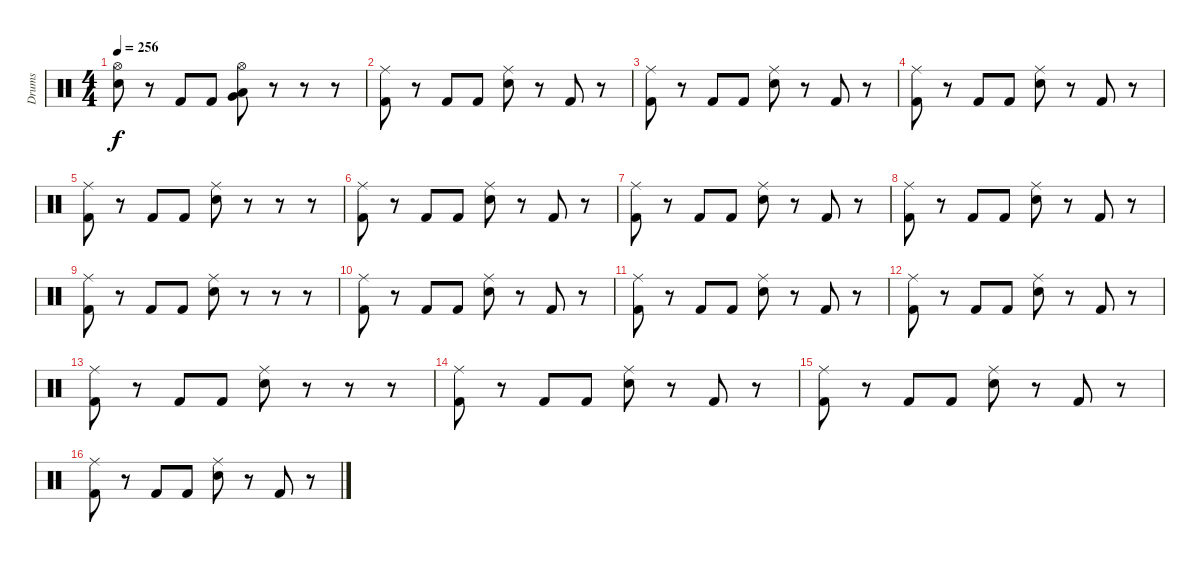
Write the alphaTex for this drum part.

\track ("Drums" "Drums") {instrument percussion}
\staff {score}
\articulation defaults
\ts (4 4)
\tempo 256
\clef neutral
\ks c
("Hi-Hat (open)" "Electric Snare (hit)").8{dy f} r.8 "Kick (hit) 2".8 "Kick (hit) 2".8 ("Hi-Hat (open)" "Low Tom (hit)" "Very Low Tom (hit)").8 r.8 r.8 r.8 |
("Ride (middle)" "Kick (hit) 2").8 r.8 "Kick (hit) 2".8 "Kick (hit) 2".8 ("Ride (middle)" "Electric Snare (hit)").8 r.8 "Kick (hit) 2".8 r.8 |
("Ride (middle)" "Kick (hit) 2").8 r.8 "Kick (hit) 2".8 "Kick (hit) 2".8 ("Ride (middle)" "Electric Snare (hit)").8 r.8 "Kick (hit) 2".8 r.8 |
("Ride (middle)" "Kick (hit) 2").8 r.8 "Kick (hit) 2".8 "Kick (hit) 2".8 ("Ride (middle)" "Electric Snare (hit)").8 r.8 "Kick (hit) 2".8 r.8 |
("Ride (middle)" "Kick (hit) 2").8 r.8 "Kick (hit) 2".8 "Kick (hit) 2".8 ("Ride (middle)" "Electric Snare (hit)").8 r.8 r.8 r.8 |
("Ride (middle)" "Kick (hit) 2").8 r.8 "Kick (hit) 2".8 "Kick (hit) 2".8 ("Ride (middle)" "Electric Snare (hit)").8 r.8 "Kick (hit) 2".8 r.8 |
("Ride (middle)" "Kick (hit) 2").8 r.8 "Kick (hit) 2".8 "Kick (hit) 2".8 ("Ride (middle)" "Electric Snare (hit)").8 r.8 "Kick (hit) 2".8 r.8 |
("Ride (middle)" "Kick (hit) 2").8 r.8 "Kick (hit) 2".8 "Kick (hit) 2".8 ("Ride (middle)" "Electric Snare (hit)").8 r.8 "Kick (hit) 2".8 r.8 |
("Ride (middle)" "Kick (hit) 2").8 r.8 "Kick (hit) 2".8 "Kick (hit) 2".8 ("Ride (middle)" "Electric Snare (hit)").8 r.8 r.8 r.8 |
("Ride (middle)" "Kick (hit) 2").8 r.8 "Kick (hit) 2".8 "Kick (hit) 2".8 ("Ride (middle)" "Electric Snare (hit)").8 r.8 "Kick (hit) 2".8 r.8 |
("Ride (middle)" "Kick (hit) 2").8 r.8 "Kick (hit) 2".8 "Kick (hit) 2".8 ("Ride (middle)" "Electric Snare (hit)").8 r.8 "Kick (hit) 2".8 r.8 |
("Ride (middle)" "Kick (hit) 2").8 r.8 "Kick (hit) 2".8 "Kick (hit) 2".8 ("Ride (middle)" "Electric Snare (hit)").8 r.8 "Kick (hit) 2".8 r.8 |
("Ride (middle)" "Kick (hit) 2").8 r.8 "Kick (hit) 2".8 "Kick (hit) 2".8 ("Ride (middle)" "Electric Snare (hit)").8 r.8 r.8 r.8 |
("Ride (middle)" "Kick (hit) 2").8 r.8 "Kick (hit) 2".8 "Kick (hit) 2".8 ("Ride (middle)" "Electric Snare (hit)").8 r.8 "Kick (hit) 2".8 r.8 |
("Ride (middle)" "Kick (hit) 2").8 r.8 "Kick (hit) 2".8 "Kick (hit) 2".8 ("Ride (middle)" "Electric Snare (hit)").8 r.8 "Kick (hit) 2".8 r.8 |
("Ride (middle)" "Kick (hit) 2").8 r.8 "Kick (hit) 2".8 "Kick (hit) 2".8 ("Ride (middle)" "Electric Snare (hit)").8 r.8 "Kick (hit) 2".8 r.8
